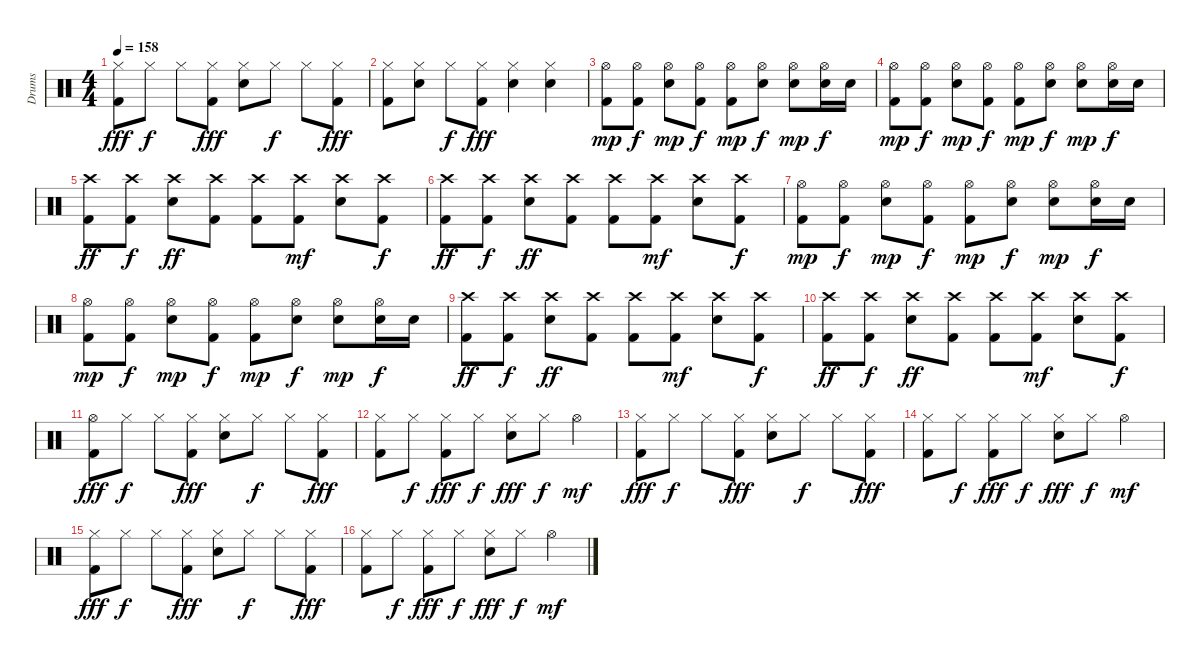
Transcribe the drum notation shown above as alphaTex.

\track ("Drums" "Drums") {instrument percussion}
\staff {score}
\articulation defaults
\ts (4 4)
\tempo 158
\clef neutral
\ks c
("Hi-Hat (closed)" "Kick (hit) 2").8{dy fff} "Hi-Hat (closed)".8{dy f} "Hi-Hat (closed)".8 ("Hi-Hat (closed)" "Kick (hit) 2").8{dy fff} ("Hi-Hat (closed)" "Snare (hit) 2").8 "Hi-Hat (closed)".8{dy f} "Hi-Hat (closed)".8 ("Hi-Hat (closed)" "Kick (hit) 2").8{dy fff} |
("Hi-Hat (closed)" "Kick (hit) 2").8 ("Hi-Hat (closed)" "Snare (hit) 2").8 "Hi-Hat (closed)".8{dy f} ("Hi-Hat (closed)" "Kick (hit) 2").8{dy fff} ("Hi-Hat (closed)" "Snare (hit) 2").4 ("Hi-Hat (closed)" "Snare (hit) 2").4 |
("Hi-Hat (open)" "Kick (hit) 2").8{dy mp} ("Hi-Hat (open)" "Kick (hit) 2").8{dy f} ("Hi-Hat (open)" "Snare (hit) 2").8{dy mp} ("Hi-Hat (open)" "Kick (hit) 2").8{dy f} ("Hi-Hat (open)" "Kick (hit) 2").8{dy mp} ("Hi-Hat (open)" "Snare (hit) 2").8{dy f} ("Hi-Hat (open)" "Snare (hit) 2").8{dy mp} ("Hi-Hat (open)" "Snare (hit) 2").16{dy f} "Snare (hit) 2".16 |
("Hi-Hat (open)" "Kick (hit) 2").8{dy mp} ("Hi-Hat (open)" "Kick (hit) 2").8{dy f} ("Hi-Hat (open)" "Snare (hit) 2").8{dy mp} ("Hi-Hat (open)" "Kick (hit) 2").8{dy f} ("Hi-Hat (open)" "Kick (hit) 2").8{dy mp} ("Hi-Hat (open)" "Snare (hit) 2").8{dy f} ("Hi-Hat (open)" "Snare (hit) 2").8{dy mp} ("Hi-Hat (open)" "Snare (hit) 2").16{dy f} "Snare (hit) 2".16 |
("Crash high (hit)" "Kick (hit) 2").8{dy ff} ("Crash high (hit)" "Kick (hit) 2").8{dy f} ("Crash high (hit)" "Snare (hit) 2").8{dy ff} ("Crash high (hit)" "Kick (hit) 2").8 ("Crash high (hit)" "Kick (hit) 2").8 ("Crash high (hit)" "Kick (hit) 2").8{dy mf} ("Crash high (hit)" "Snare (hit) 2").8 ("Crash high (hit)" "Kick (hit) 2").8{dy f} |
("Crash high (hit)" "Kick (hit) 2").8{dy ff} ("Crash high (hit)" "Kick (hit) 2").8{dy f} ("Crash high (hit)" "Snare (hit) 2").8{dy ff} ("Crash high (hit)" "Kick (hit) 2").8 ("Crash high (hit)" "Kick (hit) 2").8 ("Crash high (hit)" "Kick (hit) 2").8{dy mf} ("Crash high (hit)" "Snare (hit) 2").8 ("Crash high (hit)" "Kick (hit) 2").8{dy f} |
("Hi-Hat (open)" "Kick (hit) 2").8{dy mp} ("Hi-Hat (open)" "Kick (hit) 2").8{dy f} ("Hi-Hat (open)" "Snare (hit) 2").8{dy mp} ("Hi-Hat (open)" "Kick (hit) 2").8{dy f} ("Hi-Hat (open)" "Kick (hit) 2").8{dy mp} ("Hi-Hat (open)" "Snare (hit) 2").8{dy f} ("Hi-Hat (open)" "Snare (hit) 2").8{dy mp} ("Hi-Hat (open)" "Snare (hit) 2").16{dy f} "Snare (hit) 2".16 |
("Hi-Hat (open)" "Kick (hit) 2").8{dy mp} ("Hi-Hat (open)" "Kick (hit) 2").8{dy f} ("Hi-Hat (open)" "Snare (hit) 2").8{dy mp} ("Hi-Hat (open)" "Kick (hit) 2").8{dy f} ("Hi-Hat (open)" "Kick (hit) 2").8{dy mp} ("Hi-Hat (open)" "Snare (hit) 2").8{dy f} ("Hi-Hat (open)" "Snare (hit) 2").8{dy mp} ("Hi-Hat (open)" "Snare (hit) 2").16{dy f} "Snare (hit) 2".16 |
("Crash high (hit)" "Kick (hit) 2").8{dy ff} ("Crash high (hit)" "Kick (hit) 2").8{dy f} ("Crash high (hit)" "Snare (hit) 2").8{dy ff} ("Crash high (hit)" "Kick (hit) 2").8 ("Crash high (hit)" "Kick (hit) 2").8 ("Crash high (hit)" "Kick (hit) 2").8{dy mf} ("Crash high (hit)" "Snare (hit) 2").8 ("Crash high (hit)" "Kick (hit) 2").8{dy f} |
("Crash high (hit)" "Kick (hit) 2").8{dy ff} ("Crash high (hit)" "Kick (hit) 2").8{dy f} ("Crash high (hit)" "Snare (hit) 2").8{dy ff} ("Crash high (hit)" "Kick (hit) 2").8 ("Crash high (hit)" "Kick (hit) 2").8 ("Crash high (hit)" "Kick (hit) 2").8{dy mf} ("Crash high (hit)" "Snare (hit) 2").8 ("Crash high (hit)" "Kick (hit) 2").8{dy f} |
("Hi-Hat (open)" "Kick (hit) 2").8{dy fff} "Hi-Hat (closed)".8{dy f} "Hi-Hat (closed)".8 ("Hi-Hat (closed)" "Kick (hit) 2").8{dy fff} ("Hi-Hat (closed)" "Snare (hit) 2").8 "Hi-Hat (closed)".8{dy f} "Hi-Hat (closed)".8 ("Hi-Hat (closed)" "Kick (hit) 2").8{dy fff} |
("Hi-Hat (closed)" "Kick (hit) 2").8 "Hi-Hat (closed)".8{dy f} ("Hi-Hat (closed)" "Kick (hit) 2").8{dy fff} "Hi-Hat (closed)".8{dy f} ("Hi-Hat (closed)" "Snare (hit) 2").8{dy fff} "Hi-Hat (closed)".8{dy f} "Hi-Hat (open)".4{dy mf} |
("Hi-Hat (closed)" "Kick (hit) 2").8{dy fff} "Hi-Hat (closed)".8{dy f} "Hi-Hat (closed)".8 ("Hi-Hat (closed)" "Kick (hit) 2").8{dy fff} ("Hi-Hat (closed)" "Snare (hit) 2").8 "Hi-Hat (closed)".8{dy f} "Hi-Hat (closed)".8 ("Hi-Hat (closed)" "Kick (hit) 2").8{dy fff} |
("Hi-Hat (closed)" "Kick (hit) 2").8 "Hi-Hat (closed)".8{dy f} ("Hi-Hat (closed)" "Kick (hit) 2").8{dy fff} "Hi-Hat (closed)".8{dy f} ("Hi-Hat (closed)" "Snare (hit) 2").8{dy fff} "Hi-Hat (closed)".8{dy f} "Hi-Hat (open)".4{dy mf} |
("Hi-Hat (closed)" "Kick (hit) 2").8{dy fff} "Hi-Hat (closed)".8{dy f} "Hi-Hat (closed)".8 ("Hi-Hat (closed)" "Kick (hit) 2").8{dy fff} ("Hi-Hat (closed)" "Snare (hit) 2").8 "Hi-Hat (closed)".8{dy f} "Hi-Hat (closed)".8 ("Hi-Hat (closed)" "Kick (hit) 2").8{dy fff} |
("Hi-Hat (closed)" "Kick (hit) 2").8 "Hi-Hat (closed)".8{dy f} ("Hi-Hat (closed)" "Kick (hit) 2").8{dy fff} "Hi-Hat (closed)".8{dy f} ("Hi-Hat (closed)" "Snare (hit) 2").8{dy fff} "Hi-Hat (closed)".8{dy f} "Hi-Hat (open)".4{dy mf}
